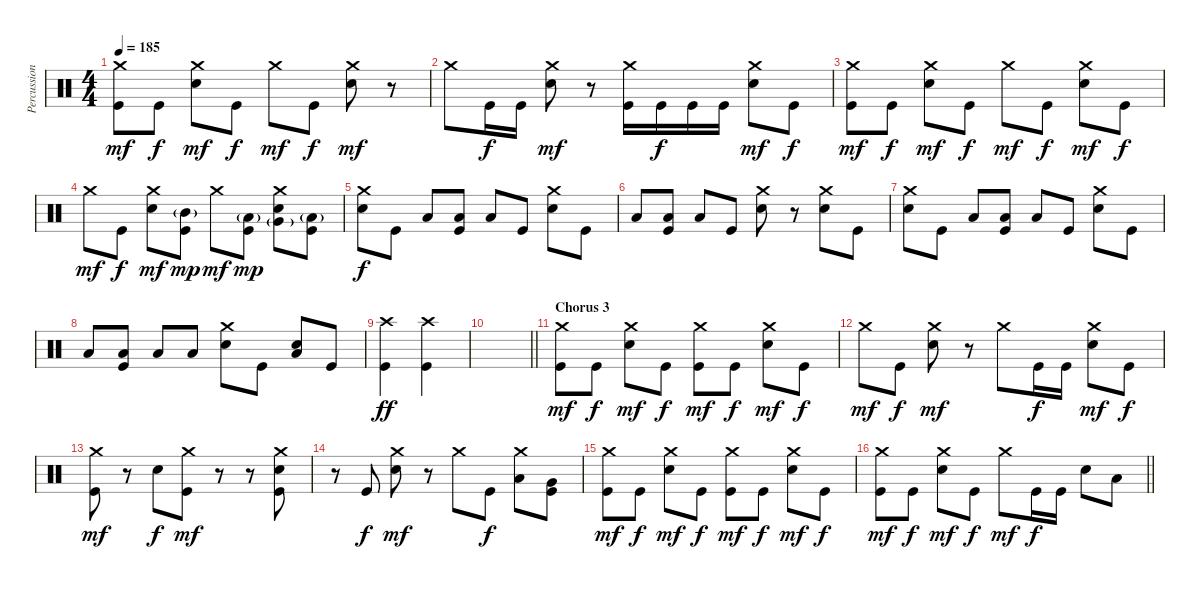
\track ("Percussion" "Percussion") {instrument percussion}
\staff {score}
\articulation defaults
\ts (4 4)
\tempo 185
\clef neutral
\ks c
("Crash medium (hit)" "Kick (hit)").8{dy mf} "Kick (hit)".8{dy f} ("Crash medium (hit)" "Electric Snare (hit)").8{dy mf} "Kick (hit)".8{dy f} "Crash medium (hit)".8{dy mf} "Kick (hit)".8{dy f} ("Crash medium (hit)" "Electric Snare (hit)").8{dy mf} r.8 |
"Crash medium (hit)".8 "Kick (hit)".16{dy f} "Kick (hit)".16 ("Crash medium (hit)" "Electric Snare (hit)").8{dy mf} r.8 ("Crash medium (hit)" "Kick (hit)").16 "Kick (hit)".16{dy f} "Kick (hit)".16 "Kick (hit)".16 ("Crash medium (hit)" "Electric Snare (hit)").8{dy mf} "Kick (hit)".8{dy f} |
("Crash medium (hit)" "Kick (hit)").8{dy mf} "Kick (hit)".8{dy f} ("Crash medium (hit)" "Electric Snare (hit)").8{dy mf} "Kick (hit)".8{dy f} "Crash medium (hit)".8{dy mf} "Kick (hit)".8{dy f} ("Crash medium (hit)" "Electric Snare (hit)").8{dy mf} "Kick (hit)".8{dy f} |
"Crash medium (hit)".8{dy mf} "Kick (hit)".8{dy f} ("Crash medium (hit)" "Electric Snare (hit)").8{dy mf} ("Mid Tom (hit)"{g} "Kick (hit)").8{dy mp} "Crash medium (hit)".8{dy mf} ("Low Tom (hit)"{g} "Kick (hit)").8{dy mp} ("Crash medium (hit)" "Very Low Tom (hit)"{g} "Electric Snare (hit)").8 ("Low Floor Tom (hit)"{g} "Kick (hit)").8 |
("Crash medium (hit)" "Electric Snare (hit)").8{dy f} "Kick (hit)".8 "Low Tom (hit)".8 ("Low Tom (hit)" "Kick (hit)").8 "Low Tom (hit)".8 "Kick (hit)".8 ("Crash medium (hit)" "Electric Snare (hit)").8 "Kick (hit)".8 |
"Low Tom (hit)".8 ("Low Tom (hit)" "Kick (hit)").8 "Low Tom (hit)".8 "Kick (hit)".8 ("Crash medium (hit)" "Electric Snare (hit)").8 r.8 ("Crash medium (hit)" "Electric Snare (hit)").8 "Kick (hit)".8 |
("Crash medium (hit)" "Electric Snare (hit)").8 "Kick (hit)".8 "Low Tom (hit)".8 ("Low Tom (hit)" "Kick (hit)").8 "Low Tom (hit)".8 "Kick (hit)".8 ("Crash medium (hit)" "Electric Snare (hit)").8 "Kick (hit)".8 |
"Low Tom (hit)".8 ("Low Tom (hit)" "Kick (hit)").8 "Low Tom (hit)".8 "Low Floor Tom (hit)".8 ("Crash medium (hit)" "Electric Snare (hit)").8 "Kick (hit)".8 ("Low Tom (hit)" "Electric Snare (hit)").8 "Kick (hit)".8 |
("Crash high (hit)" "Kick (hit)").4{dy ff} ("Crash high (hit)" "Kick (hit)").4 |
\barLineRight lightlight
|
\section ("" "Chorus 3")
("Crash medium (hit)" "Kick (hit)").8{dy mf} "Kick (hit)".8{dy f} ("Crash medium (hit)" "Electric Snare (hit)").8{dy mf} "Kick (hit)".8{dy f} ("Crash medium (hit)" "Kick (hit)").8{dy mf} "Kick (hit)".8{dy f} ("Crash medium (hit)" "Electric Snare (hit)").8{dy mf} "Kick (hit)".8{dy f} |
"Crash medium (hit)".8{dy mf} "Kick (hit)".8{dy f} ("Crash medium (hit)" "Electric Snare (hit)").8{dy mf} r.8 "Crash medium (hit)".8 "Kick (hit)".16{dy f} "Kick (hit)".16 ("Crash medium (hit)" "Electric Snare (hit)").8{dy mf} "Kick (hit)".8{dy f} |
("Crash medium (hit)" "Kick (hit)").8{dy mf} r.8 "Electric Snare (hit)".8{dy f} ("Crash medium (hit)" "Kick (hit)").8{dy mf} r.8 r.8 ("Crash medium (hit)" "Electric Snare (hit)" "Kick (hit)").8 |
r.8 "Kick (hit)".8{dy f} ("Crash medium (hit)" "Electric Snare (hit)").8{dy mf} r.8 "Crash medium (hit)".8 "Kick (hit)".8{dy f} ("Crash medium (hit)" "Low Tom (hit)").8 ("Very Low Tom (hit)" "Kick (hit)").8 |
("Crash medium (hit)" "Kick (hit)").8{dy mf} "Kick (hit)".8{dy f} ("Crash medium (hit)" "Electric Snare (hit)").8{dy mf} "Kick (hit)".8{dy f} ("Crash medium (hit)" "Kick (hit)").8{dy mf} "Kick (hit)".8{dy f} ("Crash medium (hit)" "Electric Snare (hit)").8{dy mf} "Kick (hit)".8{dy f} |
\barLineRight lightlight
("Crash medium (hit)" "Kick (hit)").8{dy mf} "Kick (hit)".8{dy f} ("Crash medium (hit)" "Electric Snare (hit)").8{dy mf} "Kick (hit)".8{dy f} "Crash medium (hit)".8{dy mf} "Kick (hit)".16{dy f} "Kick (hit)".16 "Electric Snare (hit)".8 "Low Tom (hit)".8
